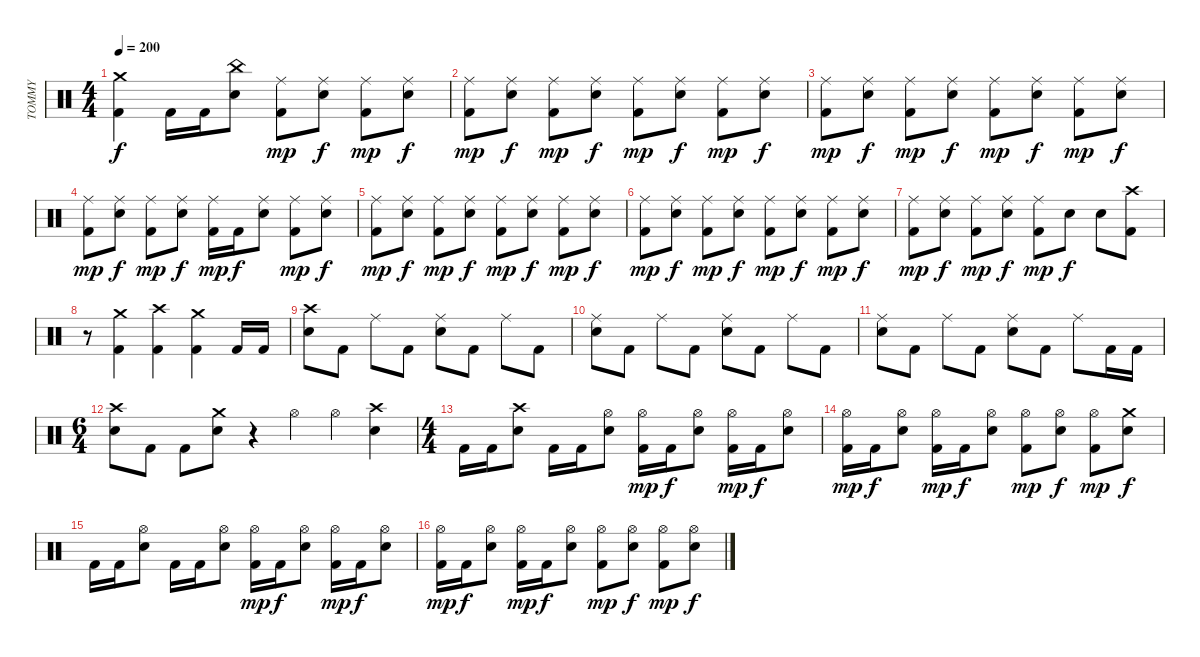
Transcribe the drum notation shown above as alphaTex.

\track ("TOMMY" "TOMMY") {instrument percussion}
\staff {score}
\articulation defaults
\ts (4 4)
\tempo 200
\clef neutral
\ks c
("Kick (hit) 2" "Crash medium (hit)").4{dy f} "Kick (hit) 2".16 "Kick (hit) 2".16 ("Snare (hit) 2" "China (hit)").8 ("Kick (hit) 2" "Ride (middle)").8{dy mp} ("Snare (hit) 2" "Ride (middle)").8{dy f} ("Kick (hit) 2" "Ride (middle)").8{dy mp} ("Snare (hit) 2" "Ride (middle)").8{dy f} |
("Kick (hit) 2" "Ride (middle)").8{dy mp} ("Snare (hit) 2" "Ride (middle)").8{dy f} ("Kick (hit) 2" "Ride (middle)").8{dy mp} ("Snare (hit) 2" "Ride (middle)").8{dy f} ("Kick (hit) 2" "Ride (middle)").8{dy mp} ("Snare (hit) 2" "Ride (middle)").8{dy f} ("Kick (hit) 2" "Ride (middle)").8{dy mp} ("Snare (hit) 2" "Ride (middle)").8{dy f} |
("Kick (hit) 2" "Ride (middle)").8{dy mp} ("Snare (hit) 2" "Ride (middle)").8{dy f} ("Kick (hit) 2" "Ride (middle)").8{dy mp} ("Snare (hit) 2" "Ride (middle)").8{dy f} ("Kick (hit) 2" "Ride (middle)").8{dy mp} ("Snare (hit) 2" "Ride (middle)").8{dy f} ("Kick (hit) 2" "Ride (middle)").8{dy mp} ("Snare (hit) 2" "Ride (middle)").8{dy f} |
("Kick (hit) 2" "Ride (middle)").8{dy mp} ("Snare (hit) 2" "Ride (middle)").8{dy f} ("Kick (hit) 2" "Ride (middle)").8{dy mp} ("Snare (hit) 2" "Ride (middle)").8{dy f} ("Kick (hit) 2" "Ride (middle)").16{dy mp} "Kick (hit) 2".16{dy f} ("Snare (hit) 2" "Ride (middle)").8 ("Kick (hit) 2" "Ride (middle)").8{dy mp} ("Snare (hit) 2" "Ride (middle)").8{dy f} |
("Kick (hit) 2" "Ride (middle)").8{dy mp} ("Snare (hit) 2" "Ride (middle)").8{dy f} ("Kick (hit) 2" "Ride (middle)").8{dy mp} ("Snare (hit) 2" "Ride (middle)").8{dy f} ("Kick (hit) 2" "Ride (middle)").8{dy mp} ("Snare (hit) 2" "Ride (middle)").8{dy f} ("Kick (hit) 2" "Ride (middle)").8{dy mp} ("Snare (hit) 2" "Ride (middle)").8{dy f} |
("Kick (hit) 2" "Ride (middle)").8{dy mp} ("Snare (hit) 2" "Ride (middle)").8{dy f} ("Kick (hit) 2" "Ride (middle)").8{dy mp} ("Snare (hit) 2" "Ride (middle)").8{dy f} ("Kick (hit) 2" "Ride (middle)").8{dy mp} ("Snare (hit) 2" "Ride (middle)").8{dy f} ("Kick (hit) 2" "Ride (middle)").8{dy mp} ("Snare (hit) 2" "Ride (middle)").8{dy f} |
("Kick (hit) 2" "Ride (middle)").8{dy mp} ("Snare (hit) 2" "Ride (middle)").8{dy f} ("Kick (hit) 2" "Ride (middle)").8{dy mp} ("Snare (hit) 2" "Ride (middle)").8{dy f} ("Kick (hit) 2" "Ride (middle)").8{dy mp} "Snare (hit) 2".8{dy f} "Snare (hit) 2".8 ("Kick (hit) 2" "Crash high (hit)").8 |
r.8 ("Kick (hit) 2" "Crash medium (hit)").4 ("Kick (hit) 2" "Crash high (hit)").4 ("Kick (hit) 2" "Crash medium (hit)").4 "Kick (hit) 2".16 "Kick (hit) 2".16 |
("Snare (hit) 2" "Crash high (hit)").8 "Kick (hit) 2".8 "Ride (middle)".8 "Kick (hit) 2".8 ("Snare (hit) 2" "Ride (middle)").8 "Kick (hit) 2".8 "Ride (middle)".8 "Kick (hit) 2".8 |
("Snare (hit) 2" "Ride (middle)").8 "Kick (hit) 2".8 "Ride (middle)".8 "Kick (hit) 2".8 ("Snare (hit) 2" "Ride (middle)").8 "Kick (hit) 2".8 "Ride (middle)".8 "Kick (hit) 2".8 |
("Snare (hit) 2" "Ride (middle)").8 "Kick (hit) 2".8 "Ride (middle)".8 "Kick (hit) 2".8 ("Snare (hit) 2" "Ride (middle)").8 "Kick (hit) 2".8 "Ride (middle)".8 "Kick (hit) 2".16 "Kick (hit) 2".16 |
\ts (6 4)
("Snare (hit) 2" "Crash high (hit)").8 "Kick (hit) 2".8 "Kick (hit) 2".8 ("Snare (hit) 2" "Crash medium (hit)").8 r.4 "Hi-Hat (open)".4 "Hi-Hat (open)".4 ("Snare (hit) 2" "Crash high (hit)").4 |
\ts (4 4)
"Kick (hit) 2".16 "Kick (hit) 2".16 ("Snare (hit) 2" "Crash high (hit)").8 "Kick (hit) 2".16 "Kick (hit) 2".16 ("Snare (hit) 2" "Hi-Hat (open)").8 ("Kick (hit) 2" "Hi-Hat (open)").16{dy mp} "Kick (hit) 2".16{dy f} ("Snare (hit) 2" "Hi-Hat (open)").8 ("Kick (hit) 2" "Hi-Hat (open)").16{dy mp} "Kick (hit) 2".16{dy f} ("Snare (hit) 2" "Hi-Hat (open)").8 |
("Kick (hit) 2" "Hi-Hat (open)").16{dy mp} "Kick (hit) 2".16{dy f} ("Snare (hit) 2" "Hi-Hat (open)").8 ("Kick (hit) 2" "Hi-Hat (open)").16{dy mp} "Kick (hit) 2".16{dy f} ("Snare (hit) 2" "Hi-Hat (open)").8 ("Kick (hit) 2" "Hi-Hat (open)").8{dy mp} ("Snare (hit) 2" "Hi-Hat (open)").8{dy f} ("Kick (hit) 2" "Hi-Hat (open)").8{dy mp} ("Snare (hit) 2" "Crash medium (hit)").8{dy f} |
"Kick (hit) 2".16 "Kick (hit) 2".16 ("Snare (hit) 2" "Hi-Hat (open)").8 "Kick (hit) 2".16 "Kick (hit) 2".16 ("Snare (hit) 2" "Hi-Hat (open)").8 ("Kick (hit) 2" "Hi-Hat (open)").16{dy mp} "Kick (hit) 2".16{dy f} ("Snare (hit) 2" "Hi-Hat (open)").8 ("Kick (hit) 2" "Hi-Hat (open)").16{dy mp} "Kick (hit) 2".16{dy f} ("Snare (hit) 2" "Hi-Hat (open)").8 |
("Kick (hit) 2" "Hi-Hat (open)").16{dy mp} "Kick (hit) 2".16{dy f} ("Snare (hit) 2" "Hi-Hat (open)").8 ("Kick (hit) 2" "Hi-Hat (open)").16{dy mp} "Kick (hit) 2".16{dy f} ("Snare (hit) 2" "Hi-Hat (open)").8 ("Kick (hit) 2" "Hi-Hat (open)").8{dy mp} ("Snare (hit) 2" "Hi-Hat (open)").8{dy f} ("Kick (hit) 2" "Hi-Hat (open)").8{dy mp} ("Snare (hit) 2" "Hi-Hat (open)").8{dy f}
